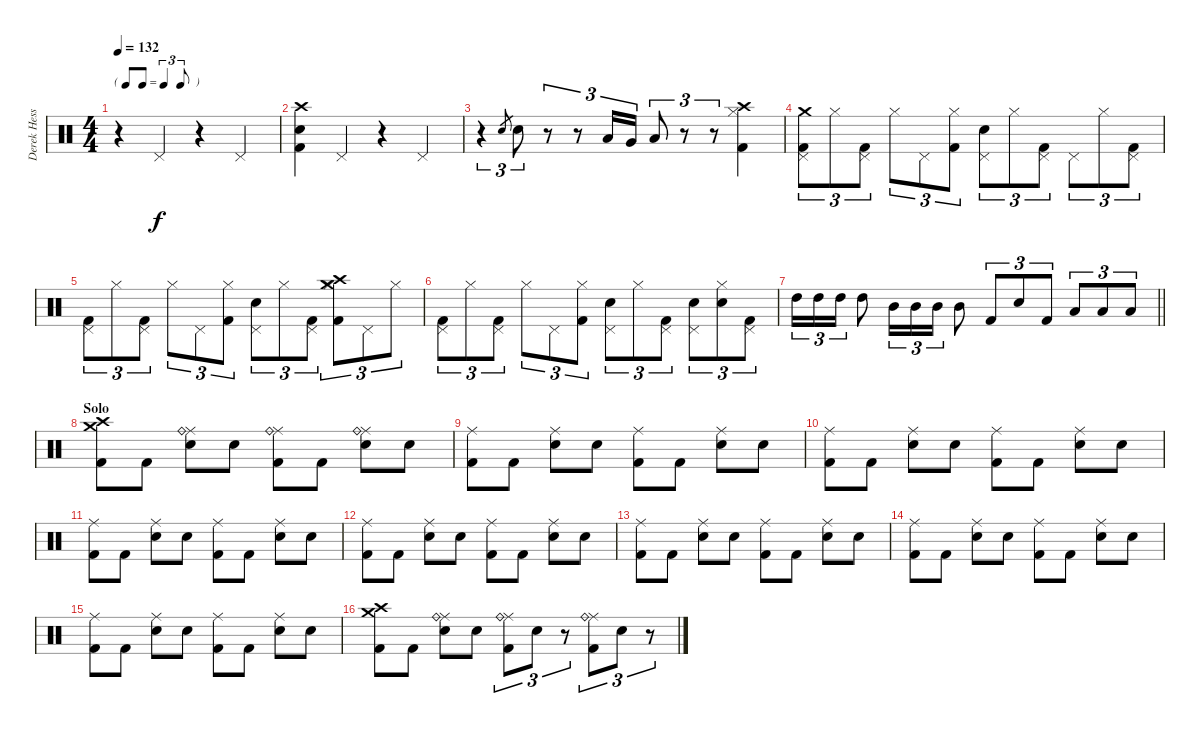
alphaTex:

\track ("Derek Hess (Drums and Percussion)" "Derek Hess") {instrument percussion}
\staff {score}
\articulation defaults
\ts (4 4)
\tf triplet8th
\tempo 132
\clef neutral
\ks c
r.4{dy f} "Pedal Hi-Hat (hit)".4 r.4 "Pedal Hi-Hat (hit)".4 |
("Crash high (hit)" "Snare (hit) 2" "Kick (hit) 2").4 "Pedal Hi-Hat (hit)".4 r.4 "Pedal Hi-Hat (hit)".4 |
r.4{tu (3 2)} "Snare (hit) 2".8{gr} "Snare (hit) 2".8{tu (3 2)} r.8{tu (3 2)} r.8{tu (3 2)} "Low Tom (hit)".16{tu (3 2)} "Very Low Tom (hit)".16{tu (3 2)} "Low Floor Tom (hit)".8{tu (3 2)} r.8{tu (3 2)} r.8{tu (3 2)} ("Crash high (hit)" "Hi-Hat (closed)" "Kick (hit) 2").4 |
("Crash medium (hit)" "Pedal Hi-Hat (hit)" "Kick (hit) 2").8{tu (3 2)} "Hi-Hat (closed)".8{tu (3 2)} ("Pedal Hi-Hat (hit)" "Kick (hit) 2").8{tu (3 2)} "Hi-Hat (closed)".8{tu (3 2)} "Pedal Hi-Hat (hit)".8{tu (3 2)} ("Hi-Hat (closed)" "Kick (hit) 2").8{tu (3 2)} ("Snare (hit) 2" "Pedal Hi-Hat (hit)").8{tu (3 2)} "Hi-Hat (closed)".8{tu (3 2)} ("Pedal Hi-Hat (hit)" "Kick (hit) 2").8{tu (3 2)} "Pedal Hi-Hat (hit)".8{tu (3 2)} "Hi-Hat (closed)".8{tu (3 2)} ("Pedal Hi-Hat (hit)" "Kick (hit) 2").8{tu (3 2)} |
("Pedal Hi-Hat (hit)" "Kick (hit) 2").8{tu (3 2)} "Hi-Hat (closed)".8{tu (3 2)} ("Pedal Hi-Hat (hit)" "Kick (hit) 2").8{tu (3 2)} "Hi-Hat (closed)".8{tu (3 2)} "Pedal Hi-Hat (hit)".8{tu (3 2)} ("Hi-Hat (closed)" "Kick (hit) 2").8{tu (3 2)} ("Snare (hit) 2" "Pedal Hi-Hat (hit)").8{tu (3 2)} "Hi-Hat (closed)".8{tu (3 2)} ("Pedal Hi-Hat (hit)" "Kick (hit) 2").8{tu (3 2)} ("Crash medium (hit)" "Crash high (hit)" "Hi-Hat (closed)" "Kick (hit) 2").8{tu (3 2)} "Pedal Hi-Hat (hit)".8{tu (3 2)} "Hi-Hat (closed)".8{tu (3 2)} |
("Pedal Hi-Hat (hit)" "Kick (hit) 2").8{tu (3 2)} "Hi-Hat (closed)".8{tu (3 2)} ("Pedal Hi-Hat (hit)" "Kick (hit) 2").8{tu (3 2)} "Hi-Hat (closed)".8{tu (3 2)} "Pedal Hi-Hat (hit)".8{tu (3 2)} ("Hi-Hat (closed)" "Kick (hit) 2").8{tu (3 2)} ("Snare (hit) 2" "Pedal Hi-Hat (hit)").8{tu (3 2)} "Hi-Hat (closed)".8{tu (3 2)} ("Pedal Hi-Hat (hit)" "Kick (hit) 2").8{tu (3 2)} ("Snare (hit) 2" "Pedal Hi-Hat (hit)").8{tu (3 2)} ("Snare (hit) 2" "Hi-Hat (closed)").8{tu (3 2)} ("Pedal Hi-Hat (hit)" "Kick (hit) 2").8{tu (3 2)} |
\barLineRight lightlight "High Tom (hit)".16{tu (3 2)} "High Tom (hit)".16{tu (3 2)} "High Tom (hit)".16{tu (3 2)} "High Tom (hit)".8 "Mid Tom (hit)".16{tu (3 2)} "Mid Tom (hit)".16{tu (3 2)} "Mid Tom (hit)".16{tu (3 2)} "Mid Tom (hit)".8 "Kick (hit) 2".8{tu (3 2)} "Snare (hit) 2".8{tu (3 2)} "Kick (hit) 2".8{tu (3 2)} "Low Tom (hit)".8{tu (3 2)} "Low Tom (hit)".8{tu (3 2)} "Low Tom (hit)".8{tu (3 2)}
|
\section ("" "Solo")
("Crash medium (hit)" "Crash high (hit)" "Kick (hit) 2").8 "Kick (hit) 2".8 ("Ride (middle)" "Ride (bell)" "Snare (hit) 2").8 "Snare (hit) 2".8 ("Ride (middle)" "Ride (bell)" "Kick (hit) 2").8 "Kick (hit) 2".8 ("Ride (middle)" "Ride (bell)" "Snare (hit) 2").8 "Snare (hit) 2".8 |
("Ride (middle)" "Kick (hit) 2").8 "Kick (hit) 2".8 ("Ride (middle)" "Snare (hit) 2").8 "Snare (hit) 2".8 ("Ride (middle)" "Kick (hit) 2").8 "Kick (hit) 2".8 ("Ride (middle)" "Snare (hit) 2").8 "Snare (hit) 2".8 |
("Ride (middle)" "Kick (hit) 2").8 "Kick (hit) 2".8 ("Ride (middle)" "Snare (hit) 2").8 "Snare (hit) 2".8 ("Ride (middle)" "Kick (hit) 2").8 "Kick (hit) 2".8 ("Ride (middle)" "Snare (hit) 2").8 "Snare (hit) 2".8 |
("Ride (middle)" "Kick (hit) 2").8 "Kick (hit) 2".8 ("Ride (middle)" "Snare (hit) 2").8 "Snare (hit) 2".8 ("Ride (middle)" "Kick (hit) 2").8 "Kick (hit) 2".8 ("Ride (middle)" "Snare (hit) 2").8 "Snare (hit) 2".8 |
("Ride (middle)" "Kick (hit) 2").8 "Kick (hit) 2".8 ("Ride (middle)" "Snare (hit) 2").8 "Snare (hit) 2".8 ("Ride (middle)" "Kick (hit) 2").8 "Kick (hit) 2".8 ("Ride (middle)" "Snare (hit) 2").8 "Snare (hit) 2".8 |
("Ride (middle)" "Kick (hit) 2").8 "Kick (hit) 2".8 ("Ride (middle)" "Snare (hit) 2").8 "Snare (hit) 2".8 ("Ride (middle)" "Kick (hit) 2").8 "Kick (hit) 2".8 ("Ride (middle)" "Snare (hit) 2").8 "Snare (hit) 2".8 |
("Ride (middle)" "Kick (hit) 2").8 "Kick (hit) 2".8 ("Ride (middle)" "Snare (hit) 2").8 "Snare (hit) 2".8 ("Ride (middle)" "Kick (hit) 2").8 "Kick (hit) 2".8 ("Ride (middle)" "Snare (hit) 2").8 "Snare (hit) 2".8 |
("Ride (middle)" "Kick (hit) 2").8 "Kick (hit) 2".8 ("Ride (middle)" "Snare (hit) 2").8 "Snare (hit) 2".8 ("Ride (middle)" "Kick (hit) 2").8 "Kick (hit) 2".8 ("Ride (middle)" "Snare (hit) 2").8 "Snare (hit) 2".8 |
("Crash medium (hit)" "Crash high (hit)" "Kick (hit) 2").8 "Kick (hit) 2".8 ("Ride (middle)" "Ride (bell)" "Snare (hit) 2").8 "Snare (hit) 2".8 ("Ride (middle)" "Ride (bell)" "Kick (hit) 2").8{tu (3 2)} "Snare (hit) 2".8{tu (3 2)} r.8{tu (3 2)} ("Ride (middle)" "Ride (bell)" "Kick (hit) 2").8{tu (3 2)} "Snare (hit) 2".8{tu (3 2)} r.8{tu (3 2)}
